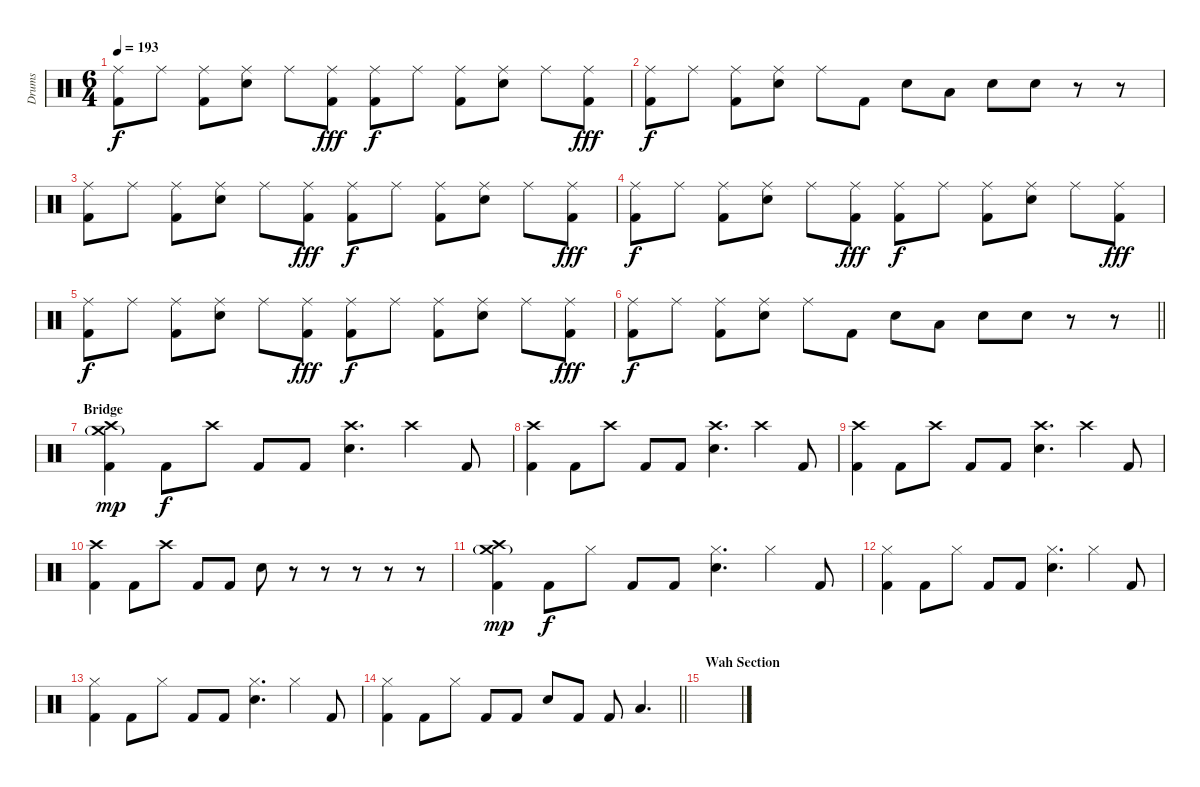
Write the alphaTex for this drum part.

\track ("Drums" "Drums") {instrument percussion}
\staff {score}
\articulation defaults
\ts (6 4)
\tempo 193
\clef neutral
\ks c
("Ride (middle)" "Kick (hit) 2").8{dy f} "Ride (middle)".8 ("Ride (middle)" "Kick (hit) 2").8 ("Ride (middle)" "Electric Snare (hit)").8 "Ride (middle)".8 ("Ride (middle)" "Kick (hit) 2").8{dy fff} ("Ride (middle)" "Kick (hit) 2").8{dy f} "Ride (middle)".8 ("Ride (middle)" "Kick (hit) 2").8 ("Ride (middle)" "Electric Snare (hit)").8 "Ride (middle)".8 ("Ride (middle)" "Kick (hit) 2").8{dy fff} |
("Ride (middle)" "Kick (hit) 2").8{dy f} "Ride (middle)".8 ("Ride (middle)" "Kick (hit) 2").8 ("Ride (middle)" "Electric Snare (hit)").8 "Ride (middle)".8 "Kick (hit) 2".8 "Electric Snare (hit)".8 "Low Floor Tom (hit)".8 "Electric Snare (hit)".8 "Electric Snare (hit)".8 r.8 r.8 |
("Ride (middle)" "Kick (hit) 2").8 "Ride (middle)".8 ("Ride (middle)" "Kick (hit) 2").8 ("Ride (middle)" "Electric Snare (hit)").8 "Ride (middle)".8 ("Ride (middle)" "Kick (hit) 2").8{dy fff} ("Ride (middle)" "Kick (hit) 2").8{dy f} "Ride (middle)".8 ("Ride (middle)" "Kick (hit) 2").8 ("Ride (middle)" "Electric Snare (hit)").8 "Ride (middle)".8 ("Ride (middle)" "Kick (hit) 2").8{dy fff} |
("Ride (middle)" "Kick (hit) 2").8{dy f} "Ride (middle)".8 ("Ride (middle)" "Kick (hit) 2").8 ("Ride (middle)" "Electric Snare (hit)").8 "Ride (middle)".8 ("Ride (middle)" "Kick (hit) 2").8{dy fff} ("Ride (middle)" "Kick (hit) 2").8{dy f} "Ride (middle)".8 ("Ride (middle)" "Kick (hit) 2").8 ("Ride (middle)" "Electric Snare (hit)").8 "Ride (middle)".8 ("Ride (middle)" "Kick (hit) 2").8{dy fff} |
("Ride (middle)" "Kick (hit) 2").8{dy f} "Ride (middle)".8 ("Ride (middle)" "Kick (hit) 2").8 ("Ride (middle)" "Electric Snare (hit)").8 "Ride (middle)".8 ("Ride (middle)" "Kick (hit) 2").8{dy fff} ("Ride (middle)" "Kick (hit) 2").8{dy f} "Ride (middle)".8 ("Ride (middle)" "Kick (hit) 2").8 ("Ride (middle)" "Electric Snare (hit)").8 "Ride (middle)".8 ("Ride (middle)" "Kick (hit) 2").8{dy fff} |
\barLineRight lightlight
("Ride (middle)" "Kick (hit) 2").8{dy f} "Ride (middle)".8 ("Ride (middle)" "Kick (hit) 2").8 ("Ride (middle)" "Electric Snare (hit)").8 "Ride (middle)".8 "Kick (hit) 2".8 "Electric Snare (hit)".8 "Low Floor Tom (hit)".8 "Electric Snare (hit)".8 "Electric Snare (hit)".8 r.8 r.8 |
\section ("" "Bridge")
("Crash high (hit)" "Crash medium (hit)"{g} "Kick (hit) 2").4{dy mp} "Kick (hit) 2".8{dy f} "Crash high (hit)".8 "Kick (hit) 2".8 "Kick (hit) 2".8 ("Crash high (hit)" "Electric Snare (hit)").4{d} "Crash high (hit)".4 "Kick (hit) 2".8 |
("Crash high (hit)" "Kick (hit) 2").4 "Kick (hit) 2".8 "Crash high (hit)".8 "Kick (hit) 2".8 "Kick (hit) 2".8 ("Crash high (hit)" "Electric Snare (hit)").4{d} "Crash high (hit)".4 "Kick (hit) 2".8 |
("Crash high (hit)" "Kick (hit) 2").4 "Kick (hit) 2".8 "Crash high (hit)".8 "Kick (hit) 2".8 "Kick (hit) 2".8 ("Crash high (hit)" "Electric Snare (hit)").4{d} "Crash high (hit)".4 "Kick (hit) 2".8 |
("Crash high (hit)" "Kick (hit) 2").4 "Kick (hit) 2".8 "Crash high (hit)".8 "Kick (hit) 2".8 "Kick (hit) 2".8 "Electric Snare (hit)".8 r.8 r.8 r.8 r.8 r.8 |
("Crash high (hit)" "Crash medium (hit)"{g} "Kick (hit) 2").4{dy mp} "Kick (hit) 2".8{dy f} "Hi-Hat (closed)".8 "Kick (hit) 2".8 "Kick (hit) 2".8 ("Hi-Hat (closed)" "Electric Snare (hit)").4{d} "Hi-Hat (closed)".4 "Kick (hit) 2".8 |
("Hi-Hat (closed)" "Kick (hit) 2").4 "Kick (hit) 2".8 "Hi-Hat (closed)".8 "Kick (hit) 2".8 "Kick (hit) 2".8 ("Hi-Hat (closed)" "Electric Snare (hit)").4{d} "Hi-Hat (closed)".4 "Kick (hit) 2".8 |
("Hi-Hat (closed)" "Kick (hit) 2").4 "Kick (hit) 2".8 "Hi-Hat (closed)".8 "Kick (hit) 2".8 "Kick (hit) 2".8 ("Hi-Hat (closed)" "Electric Snare (hit)").4{d} "Hi-Hat (closed)".4 "Kick (hit) 2".8 |
\barLineRight lightlight
("Hi-Hat (closed)" "Kick (hit) 2").4 "Kick (hit) 2".8 "Hi-Hat (closed)".8 "Kick (hit) 2".8 "Kick (hit) 2".8 "Electric Snare (hit)".8 "Kick (hit) 2".8 "Kick (hit) 2".8 "Low Floor Tom (hit)".4{d} |
\section ("" "Wah Section")
